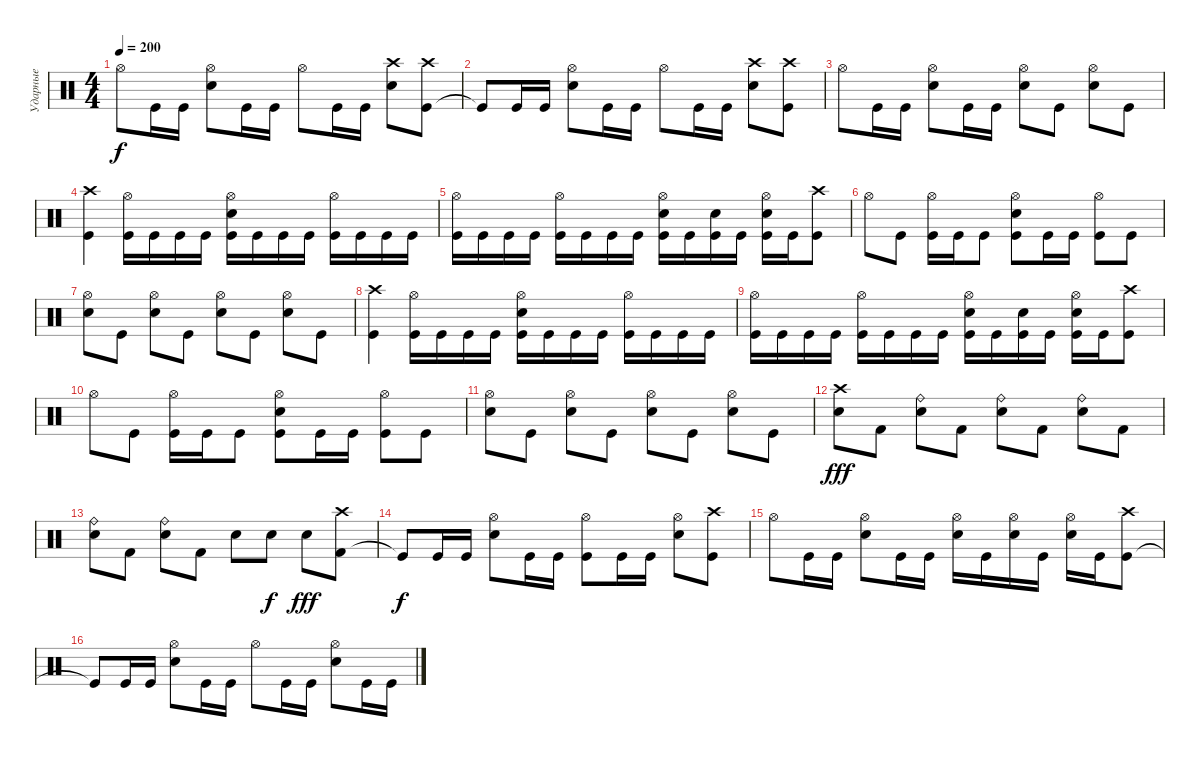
\track ("Ударные" "Ударные") {instrument percussion}
\staff {score}
\articulation defaults
\ts (4 4)
\tempo 200
\clef neutral
\ks c "Hi-Hat (open)".8{dy f} "Kick (hit)".16 "Kick (hit)".16
("Snare (hit) 2" "Hi-Hat (open)").8 "Kick (hit)".16 "Kick (hit)".16 "Hi-Hat (open)".8 "Kick (hit)".16 "Kick (hit)".16 ("Snare (hit) 2" "Crash high (hit)").8 ("Kick (hit)" "Crash high (hit)").8 |
"Kick (hit)"{t}.8 "Kick (hit)".16 "Kick (hit)".16 ("Snare (hit) 2" "Hi-Hat (open)").8 "Kick (hit)".16 "Kick (hit)".16 "Hi-Hat (open)".8 "Kick (hit)".16 "Kick (hit)".16 ("Snare (hit) 2" "Crash high (hit)").8 ("Kick (hit)" "Crash high (hit)").8 |
"Hi-Hat (open)".8 "Kick (hit)".16 "Kick (hit)".16 ("Snare (hit) 2" "Hi-Hat (open)").8 "Kick (hit)".16 "Kick (hit)".16 ("Hi-Hat (open)" "Snare (hit) 2").8 "Kick (hit)".8 ("Snare (hit) 2" "Hi-Hat (open)").8 "Kick (hit)".8 |
("Kick (hit)" "Crash high (hit)").4 ("Kick (hit)" "Hi-Hat (open)").16 "Kick (hit)".16 "Kick (hit)".16 "Kick (hit)".16 ("Kick (hit)" "Snare (hit) 2" "Hi-Hat (open)").16 "Kick (hit)".16 "Kick (hit)".16 "Kick (hit)".16 ("Kick (hit)" "Hi-Hat (open)").16 "Kick (hit)".16 "Kick (hit)".16 "Kick (hit)".16 |
("Kick (hit)" "Hi-Hat (open)").16 "Kick (hit)".16 "Kick (hit)".16 "Kick (hit)".16 ("Kick (hit)" "Hi-Hat (open)").16 "Kick (hit)".16 "Kick (hit)".16 "Kick (hit)".16 ("Kick (hit)" "Snare (hit) 2" "Hi-Hat (open)").16 "Kick (hit)".16 ("Kick (hit)" "Snare (hit) 2").16 "Kick (hit)".16 ("Kick (hit)" "Snare (hit) 2" "Hi-Hat (open)").16 "Kick (hit)".16 ("Kick (hit)" "Crash high (hit)").8 |
"Hi-Hat (open)".8 "Kick (hit)".8 ("Kick (hit)" "Hi-Hat (open)").16 "Kick (hit)".16 "Kick (hit)".8 ("Kick (hit)" "Snare (hit) 2" "Hi-Hat (open)").8 "Kick (hit)".16 "Kick (hit)".16 ("Kick (hit)" "Hi-Hat (open)").8 "Kick (hit)".8 |
("Snare (hit) 2" "Hi-Hat (open)").8 "Kick (hit)".8 ("Snare (hit) 2" "Hi-Hat (open)").8 "Kick (hit)".8 ("Snare (hit) 2" "Hi-Hat (open)").8 "Kick (hit)".8 ("Snare (hit) 2" "Hi-Hat (open)").8 "Kick (hit)".8 |
("Kick (hit)" "Crash high (hit)").4 ("Kick (hit)" "Hi-Hat (open)").16 "Kick (hit)".16 "Kick (hit)".16 "Kick (hit)".16 ("Kick (hit)" "Snare (hit) 2" "Hi-Hat (open)").16 "Kick (hit)".16 "Kick (hit)".16 "Kick (hit)".16 ("Kick (hit)" "Hi-Hat (open)").16 "Kick (hit)".16 "Kick (hit)".16 "Kick (hit)".16 |
("Kick (hit)" "Hi-Hat (open)").16 "Kick (hit)".16 "Kick (hit)".16 "Kick (hit)".16 ("Kick (hit)" "Hi-Hat (open)").16 "Kick (hit)".16 "Kick (hit)".16 "Kick (hit)".16 ("Kick (hit)" "Snare (hit) 2" "Hi-Hat (open)").16 "Kick (hit)".16 ("Kick (hit)" "Snare (hit) 2").16 "Kick (hit)".16 ("Kick (hit)" "Snare (hit) 2" "Hi-Hat (open)").16 "Kick (hit)".16 ("Kick (hit)" "Crash high (hit)").8 |
"Hi-Hat (open)".8 "Kick (hit)".8 ("Kick (hit)" "Hi-Hat (open)").16 "Kick (hit)".16 "Kick (hit)".8 ("Kick (hit)" "Snare (hit) 2" "Hi-Hat (open)").8 "Kick (hit)".16 "Kick (hit)".16 ("Kick (hit)" "Hi-Hat (open)").8 "Kick (hit)".8 |
("Snare (hit) 2" "Hi-Hat (open)").8 "Kick (hit)".8 ("Snare (hit) 2" "Hi-Hat (open)").8 "Kick (hit)".8 ("Snare (hit) 2" "Hi-Hat (open)").8 "Kick (hit)".8 ("Snare (hit) 2" "Hi-Hat (open)").8 "Kick (hit)".8 |
("Electric Snare (hit)" "Crash high (hit)").8{dy fff} "Kick (hit) 2".8 ("Ride (bell)" "Electric Snare (hit)").8 "Kick (hit) 2".8 ("Ride (bell)" "Electric Snare (hit)").8 "Kick (hit) 2".8 ("Ride (bell)" "Electric Snare (hit)").8 "Kick (hit) 2".8 |
("Ride (bell)" "Electric Snare (hit)").8 "Kick (hit) 2".8 ("Ride (bell)" "Electric Snare (hit)").8 "Kick (hit) 2".8 "Electric Snare (hit)".8 "Snare (hit) 2".8{dy f} "Electric Snare (hit)".8{dy fff} ("Kick (hit) 2" "Crash high (hit)").8 |
"Kick (hit)"{t}.8{dy f} "Kick (hit)".16 "Kick (hit)".16 ("Snare (hit) 2" "Hi-Hat (open)").8 "Kick (hit)".16 "Kick (hit)".16 ("Hi-Hat (open)" "Kick (hit)").8 "Kick (hit)".16 "Kick (hit)".16 ("Snare (hit) 2" "Hi-Hat (open)").8 ("Kick (hit)" "Crash high (hit)").8 |
"Hi-Hat (open)".8 "Kick (hit)".16 "Kick (hit)".16 ("Snare (hit) 2" "Hi-Hat (open)").8 "Kick (hit)".16 "Kick (hit)".16 ("Hi-Hat (open)" "Snare (hit) 2").16 "Kick (hit)".16 ("Snare (hit) 2" "Hi-Hat (open)").16 "Kick (hit)".16 ("Snare (hit) 2" "Hi-Hat (open)").16 "Kick (hit)".16 ("Kick (hit)" "Crash high (hit)").8 |
"Kick (hit)"{t}.8 "Kick (hit)".16 "Kick (hit)".16 ("Snare (hit) 2" "Hi-Hat (open)").8 "Kick (hit)".16 "Kick (hit)".16 "Hi-Hat (open)".8 "Kick (hit)".16 "Kick (hit)".16 ("Snare (hit) 2" "Hi-Hat (open)").8 "Kick (hit)".16 "Kick (hit)".16
